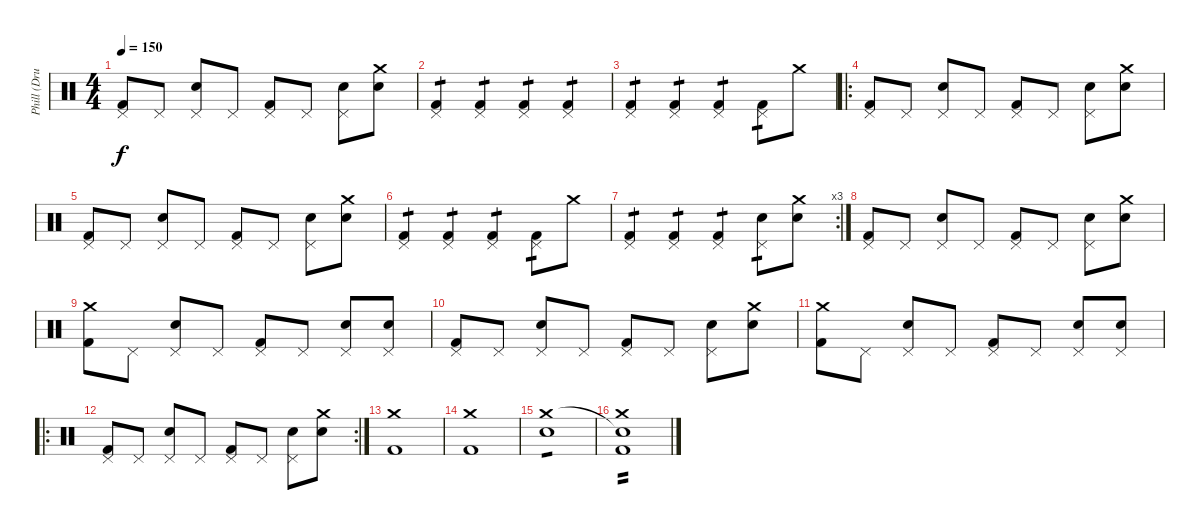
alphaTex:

\track ("Phill (Drums)" "Phill (Dru") {instrument percussion}
\staff {score}
\articulation defaults
\ts (4 4)
\tempo 150
\clef neutral
\ks c
("Kick (hit) 2" "Pedal Hi-Hat (hit)").8{dy f} "Pedal Hi-Hat (hit)".8 ("Snare (hit) 2" "Pedal Hi-Hat (hit)").8 "Pedal Hi-Hat (hit)".8 ("Kick (hit) 2" "Pedal Hi-Hat (hit)").8 "Pedal Hi-Hat (hit)".8 ("Snare (hit) 2" "Pedal Hi-Hat (hit)").8 ("Snare (hit) 2" "Crash medium (hit)").8 |
("Kick (hit) 2" "Pedal Hi-Hat (hit)").4{tp 1} ("Kick (hit) 2" "Pedal Hi-Hat (hit)").4{tp 1} ("Kick (hit) 2" "Pedal Hi-Hat (hit)").4{tp 1} ("Kick (hit) 2" "Pedal Hi-Hat (hit)").4{tp 1} |
("Kick (hit) 2" "Pedal Hi-Hat (hit)").4{tp 1} ("Kick (hit) 2" "Pedal Hi-Hat (hit)").4{tp 1} ("Kick (hit) 2" "Pedal Hi-Hat (hit)").4{tp 1} ("Kick (hit) 2" "Pedal Hi-Hat (hit)").8{tp 1} "Crash medium (hit)".8 |
\ro
("Kick (hit) 2" "Pedal Hi-Hat (hit)").8 "Pedal Hi-Hat (hit)".8 ("Snare (hit) 2" "Pedal Hi-Hat (hit)").8 "Pedal Hi-Hat (hit)".8 ("Kick (hit) 2" "Pedal Hi-Hat (hit)").8 "Pedal Hi-Hat (hit)".8 ("Snare (hit) 2" "Pedal Hi-Hat (hit)").8 ("Snare (hit) 2" "Crash medium (hit)").8 |
("Kick (hit) 2" "Pedal Hi-Hat (hit)").8 "Pedal Hi-Hat (hit)".8 ("Snare (hit) 2" "Pedal Hi-Hat (hit)").8 "Pedal Hi-Hat (hit)".8 ("Kick (hit) 2" "Pedal Hi-Hat (hit)").8 "Pedal Hi-Hat (hit)".8 ("Snare (hit) 2" "Pedal Hi-Hat (hit)").8 ("Snare (hit) 2" "Crash medium (hit)").8 |
("Kick (hit) 2" "Pedal Hi-Hat (hit)").4{tp 1} ("Kick (hit) 2" "Pedal Hi-Hat (hit)").4{tp 1} ("Kick (hit) 2" "Pedal Hi-Hat (hit)").4{tp 1} ("Kick (hit) 2" "Pedal Hi-Hat (hit)").8{tp 1} "Crash medium (hit)".8 |
\rc 3
("Kick (hit) 2" "Pedal Hi-Hat (hit)").4{tp 1} ("Kick (hit) 2" "Pedal Hi-Hat (hit)").4{tp 1} ("Kick (hit) 2" "Pedal Hi-Hat (hit)").4{tp 1} ("Snare (hit) 2" "Pedal Hi-Hat (hit)").8{tp 1} ("Snare (hit) 2" "Crash medium (hit)").8 |
("Kick (hit) 2" "Pedal Hi-Hat (hit)").8 "Pedal Hi-Hat (hit)".8 ("Snare (hit) 2" "Pedal Hi-Hat (hit)").8 "Pedal Hi-Hat (hit)".8 ("Kick (hit) 2" "Pedal Hi-Hat (hit)").8 "Pedal Hi-Hat (hit)".8 ("Snare (hit) 2" "Pedal Hi-Hat (hit)").8 ("Snare (hit) 2" "Crash medium (hit)").8 |
("Kick (hit) 2" "Crash medium (hit)").8 "Pedal Hi-Hat (hit)".8 ("Snare (hit) 2" "Pedal Hi-Hat (hit)").8 "Pedal Hi-Hat (hit)".8 ("Kick (hit) 2" "Pedal Hi-Hat (hit)").8 "Pedal Hi-Hat (hit)".8 ("Snare (hit) 2" "Pedal Hi-Hat (hit)").8 ("Snare (hit) 2" "Pedal Hi-Hat (hit)").8 |
("Kick (hit) 2" "Pedal Hi-Hat (hit)").8 "Pedal Hi-Hat (hit)".8 ("Snare (hit) 2" "Pedal Hi-Hat (hit)").8 "Pedal Hi-Hat (hit)".8 ("Kick (hit) 2" "Pedal Hi-Hat (hit)").8 "Pedal Hi-Hat (hit)".8 ("Snare (hit) 2" "Pedal Hi-Hat (hit)").8 ("Snare (hit) 2" "Crash medium (hit)").8 |
("Kick (hit) 2" "Crash medium (hit)").8 "Pedal Hi-Hat (hit)".8 ("Snare (hit) 2" "Pedal Hi-Hat (hit)").8 "Pedal Hi-Hat (hit)".8 ("Kick (hit) 2" "Pedal Hi-Hat (hit)").8 "Pedal Hi-Hat (hit)".8 ("Snare (hit) 2" "Pedal Hi-Hat (hit)").8 ("Snare (hit) 2" "Pedal Hi-Hat (hit)").8 |
\ro
\rc 2
("Kick (hit) 2" "Pedal Hi-Hat (hit)").8 "Pedal Hi-Hat (hit)".8 ("Snare (hit) 2" "Pedal Hi-Hat (hit)").8 "Pedal Hi-Hat (hit)".8 ("Kick (hit) 2" "Pedal Hi-Hat (hit)").8 "Pedal Hi-Hat (hit)".8 ("Snare (hit) 2" "Pedal Hi-Hat (hit)").8 ("Snare (hit) 2" "Crash medium (hit)").8 |
("Kick (hit) 2" "Crash medium (hit)").1 |
("Kick (hit) 2" "Crash medium (hit)").1 |
("Crash medium (hit)" "Snare (hit) 2").1{tp 1} |
("Snare (hit)"{t} "Kick (hit) 2" "Crash medium (hit)").1{tp 2}
